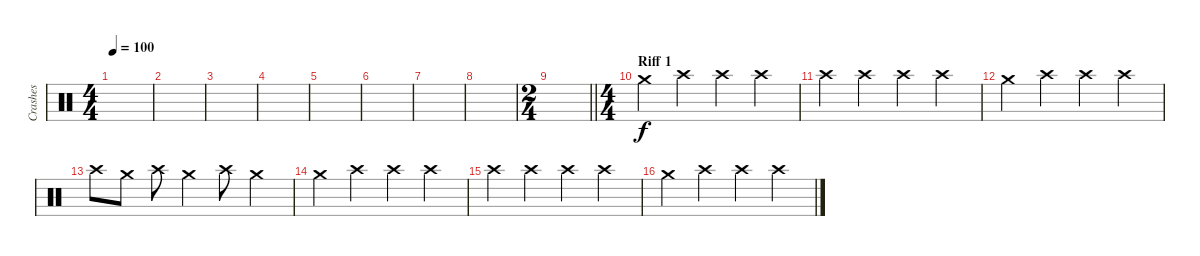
\track ("Crashes" "Crashes") {instrument percussion}
\staff {score}
\articulation defaults
\ts (4 4)
\tempo 100
\clef neutral
\ks c
|
|
|
|
|
|
|
|
\ts (2 4)
\barLineRight lightlight
|
\ts (4 4)
\section ("" "Riff 1")
"Crash medium (hit)".4 "Crash high (hit)".4 "Crash high (hit)".4 "Crash high (hit)".4 |
"Crash high (hit)".4 "Crash high (hit)".4 "Crash high (hit)".4 "Crash high (hit)".4 |
"Crash medium (hit)".4 "Crash high (hit)".4 "Crash high (hit)".4 "Crash high (hit)".4 |
"Crash high (hit)".8 "Crash medium (hit)".8 "Crash high (hit)".8 "Crash medium (hit)".4 "Crash high (hit)".8 "Crash medium (hit)".4 |
"Crash medium (hit)".4 "Crash high (hit)".4 "Crash high (hit)".4 "Crash high (hit)".4 |
"Crash high (hit)".4 "Crash high (hit)".4 "Crash high (hit)".4 "Crash high (hit)".4 |
"Crash medium (hit)".4 "Crash high (hit)".4 "Crash high (hit)".4 "Crash high (hit)".4
